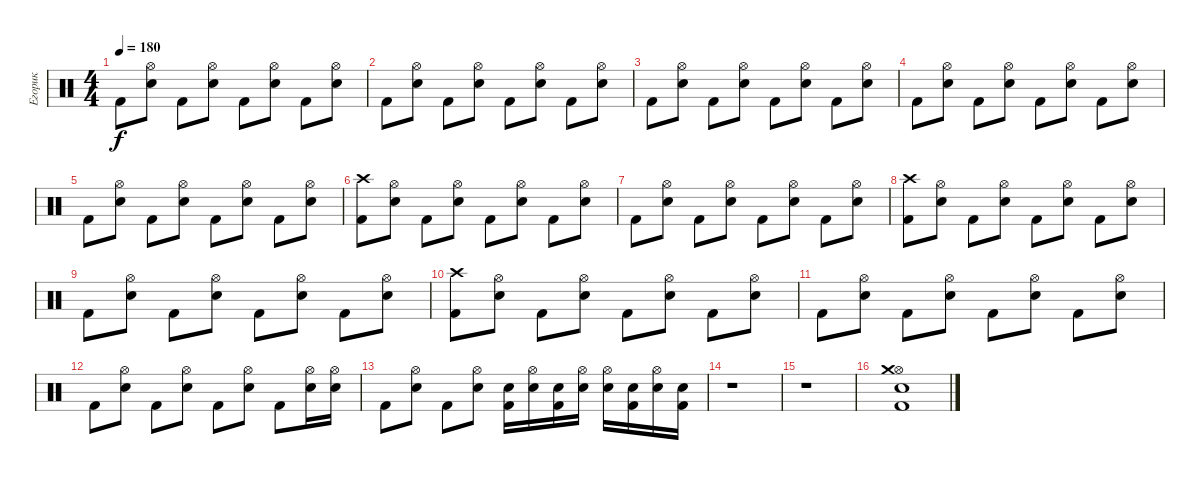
\track ("Егорик" "Егорик") {instrument percussion}
\staff {score}
\articulation defaults
\ts (4 4)
\tempo 180
\clef neutral
\ks c "Kick (hit) 2".8{dy f}
("Hi-Hat (open)" "Electric Snare (hit)").8 "Kick (hit) 2".8 ("Hi-Hat (open)" "Electric Snare (hit)").8 "Kick (hit) 2".8 ("Hi-Hat (open)" "Electric Snare (hit)").8 "Kick (hit) 2".8 ("Hi-Hat (open)" "Electric Snare (hit)").8 |
"Kick (hit) 2".8 ("Hi-Hat (open)" "Electric Snare (hit)").8 "Kick (hit) 2".8 ("Hi-Hat (open)" "Electric Snare (hit)").8 "Kick (hit) 2".8 ("Hi-Hat (open)" "Electric Snare (hit)").8 "Kick (hit) 2".8 ("Hi-Hat (open)" "Electric Snare (hit)").8 |
"Kick (hit) 2".8 ("Hi-Hat (open)" "Electric Snare (hit)").8 "Kick (hit) 2".8 ("Hi-Hat (open)" "Electric Snare (hit)").8 "Kick (hit) 2".8 ("Hi-Hat (open)" "Electric Snare (hit)").8 "Kick (hit) 2".8 ("Hi-Hat (open)" "Electric Snare (hit)").8 |
"Kick (hit) 2".8 ("Hi-Hat (open)" "Electric Snare (hit)").8 "Kick (hit) 2".8 ("Hi-Hat (open)" "Electric Snare (hit)").8 "Kick (hit) 2".8 ("Hi-Hat (open)" "Electric Snare (hit)").8 "Kick (hit) 2".8 ("Hi-Hat (open)" "Electric Snare (hit)").8 |
"Kick (hit) 2".8 ("Hi-Hat (open)" "Electric Snare (hit)").8 "Kick (hit) 2".8 ("Hi-Hat (open)" "Electric Snare (hit)").8 "Kick (hit) 2".8 ("Hi-Hat (open)" "Electric Snare (hit)").8 "Kick (hit) 2".8 ("Hi-Hat (open)" "Electric Snare (hit)").8 |
("Crash high (hit)" "Kick (hit) 2").8 ("Hi-Hat (open)" "Electric Snare (hit)").8 "Kick (hit) 2".8 ("Hi-Hat (open)" "Electric Snare (hit)").8 "Kick (hit) 2".8 ("Hi-Hat (open)" "Electric Snare (hit)").8 "Kick (hit) 2".8 ("Hi-Hat (open)" "Electric Snare (hit)").8 |
"Kick (hit) 2".8 ("Hi-Hat (open)" "Electric Snare (hit)").8 "Kick (hit) 2".8 ("Hi-Hat (open)" "Electric Snare (hit)").8 "Kick (hit) 2".8 ("Hi-Hat (open)" "Electric Snare (hit)").8 "Kick (hit) 2".8 ("Hi-Hat (open)" "Electric Snare (hit)").8 |
("Crash high (hit)" "Kick (hit) 2").8 ("Hi-Hat (open)" "Electric Snare (hit)").8 "Kick (hit) 2".8 ("Hi-Hat (open)" "Electric Snare (hit)").8 "Kick (hit) 2".8 ("Hi-Hat (open)" "Electric Snare (hit)").8 "Kick (hit) 2".8 ("Hi-Hat (open)" "Electric Snare (hit)").8 |
"Kick (hit) 2".8 ("Hi-Hat (open)" "Electric Snare (hit)").8 "Kick (hit) 2".8 ("Hi-Hat (open)" "Electric Snare (hit)").8 "Kick (hit) 2".8 ("Hi-Hat (open)" "Electric Snare (hit)").8 "Kick (hit) 2".8 ("Hi-Hat (open)" "Electric Snare (hit)").8 |
("Crash high (hit)" "Kick (hit) 2").8 ("Hi-Hat (open)" "Electric Snare (hit)").8 "Kick (hit) 2".8 ("Hi-Hat (open)" "Electric Snare (hit)").8 "Kick (hit) 2".8 ("Hi-Hat (open)" "Electric Snare (hit)").8 "Kick (hit) 2".8 ("Hi-Hat (open)" "Electric Snare (hit)").8 |
"Kick (hit) 2".8 ("Hi-Hat (open)" "Electric Snare (hit)").8 "Kick (hit) 2".8 ("Hi-Hat (open)" "Electric Snare (hit)").8 "Kick (hit) 2".8 ("Hi-Hat (open)" "Electric Snare (hit)").8 "Kick (hit) 2".8 ("Hi-Hat (open)" "Electric Snare (hit)").8 |
"Kick (hit) 2".8 ("Hi-Hat (open)" "Electric Snare (hit)").8 "Kick (hit) 2".8 ("Hi-Hat (open)" "Electric Snare (hit)").8 "Kick (hit) 2".8 ("Hi-Hat (open)" "Electric Snare (hit)").8 "Kick (hit) 2".8 ("Hi-Hat (open)" "Electric Snare (hit)").16 ("Hi-Hat (open)" "Electric Snare (hit)").16 |
"Kick (hit) 2".8 ("Hi-Hat (open)" "Electric Snare (hit)").8 "Kick (hit) 2".8 ("Hi-Hat (open)" "Electric Snare (hit)").8 ("Electric Snare (hit)" "Kick (hit) 2").16 ("Hi-Hat (open)" "Electric Snare (hit)").16 ("Electric Snare (hit)" "Kick (hit) 2").16 ("Hi-Hat (open)" "Electric Snare (hit)").16 ("Hi-Hat (open)" "Electric Snare (hit)").16 ("Electric Snare (hit)" "Kick (hit) 2").16 ("Hi-Hat (open)" "Electric Snare (hit)").16 ("Electric Snare (hit)" "Kick (hit) 2").16 |
r.1 |
r.1 |
("Kick (hit) 2" "Hi-Hat (open)" "Electric Snare (hit)" "Crash medium (hit)").1{bd 480}
